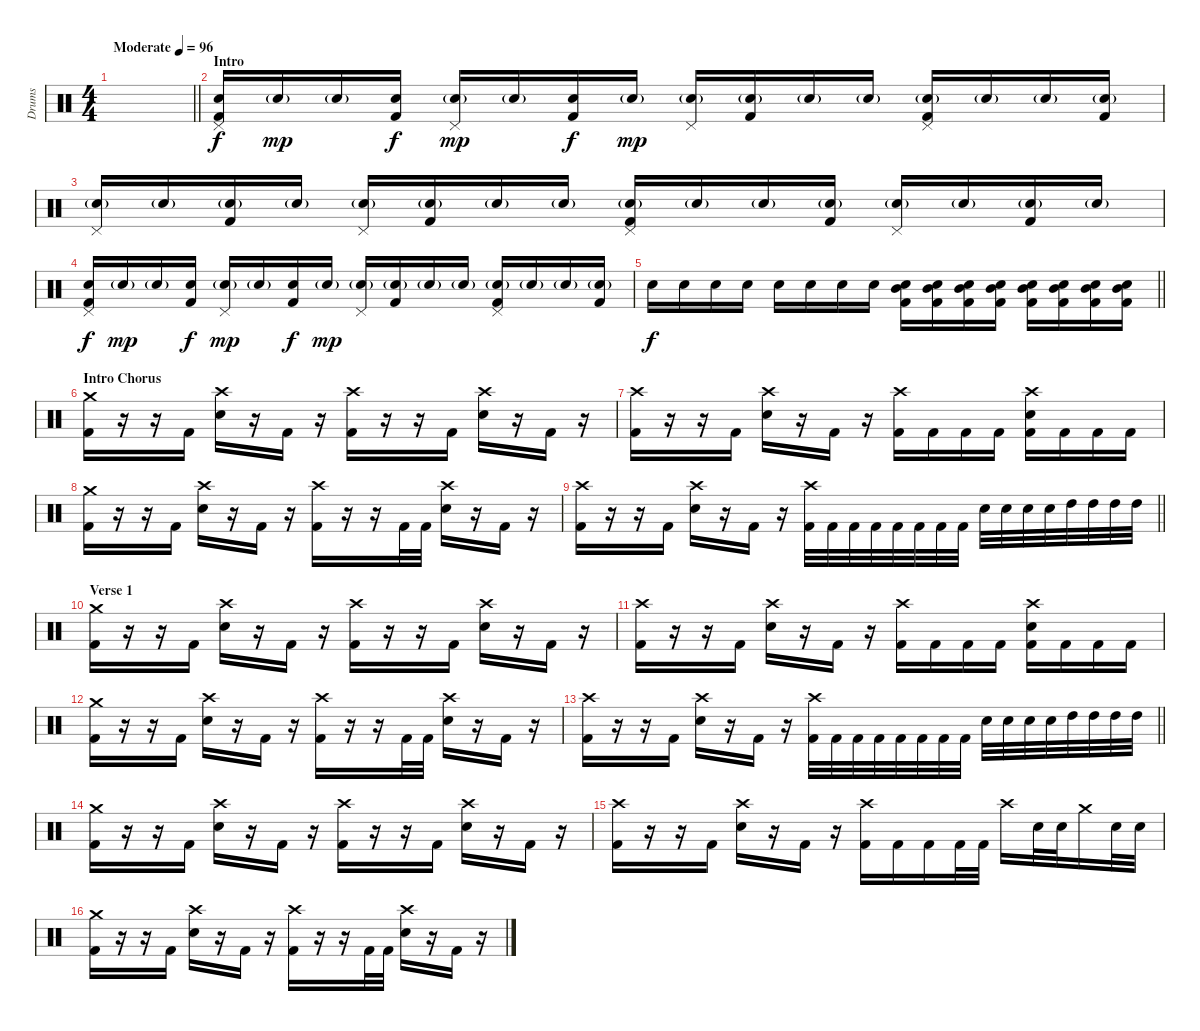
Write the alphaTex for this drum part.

\track ("Drums" "Drums") {instrument percussion}
\staff {score}
\articulation defaults
\ts (4 4)
\tempo (96 "Moderate")
\clef neutral
\barLineRight lightlight
\ks c
|
\section ("" "Intro")
("Pedal Hi-Hat (hit)" "Snare (hit) 2" "Kick (hit) 2").16 "Snare (hit) 2"{g}.16{dy mp} "Snare (hit) 2"{g}.16 ("Snare (hit) 2" "Kick (hit) 2").16{dy f} ("Pedal Hi-Hat (hit)" "Snare (hit) 2"{g}).16{dy mp} "Snare (hit) 2"{g}.16 ("Snare (hit) 2" "Kick (hit) 2").16{dy f} "Snare (hit) 2"{g}.16{dy mp} ("Pedal Hi-Hat (hit)" "Snare (hit) 2"{g}).16 ("Snare (hit) 2"{g} "Kick (hit) 2").16 "Snare (hit) 2"{g}.16 "Snare (hit) 2"{g}.16 ("Pedal Hi-Hat (hit)" "Snare (hit) 2"{g} "Kick (hit) 2").16 "Snare (hit) 2"{g}.16 "Snare (hit) 2"{g}.16 ("Snare (hit) 2"{g} "Kick (hit) 2").16 |
("Pedal Hi-Hat (hit)" "Snare (hit) 2"{g}).16 "Snare (hit) 2"{g}.16 ("Snare (hit) 2"{g} "Kick (hit) 2").16 "Snare (hit) 2"{g}.16 ("Pedal Hi-Hat (hit)" "Snare (hit) 2"{g}).16 ("Snare (hit) 2"{g} "Kick (hit) 2").16 "Snare (hit) 2"{g}.16 "Snare (hit) 2"{g}.16 ("Pedal Hi-Hat (hit)" "Snare (hit) 2"{g} "Kick (hit) 2").16 "Snare (hit) 2"{g}.16 "Snare (hit) 2"{g}.16 ("Snare (hit) 2"{g} "Kick (hit) 2").16 ("Pedal Hi-Hat (hit)" "Snare (hit) 2"{g}).16 "Snare (hit) 2"{g}.16 ("Snare (hit) 2"{g} "Kick (hit) 2").16 "Snare (hit) 2"{g}.16 |
("Pedal Hi-Hat (hit)" "Snare (hit) 2" "Kick (hit) 2").16{dy f} "Snare (hit) 2"{g}.16{dy mp} "Snare (hit) 2"{g}.16 ("Snare (hit) 2" "Kick (hit) 2").16{dy f} ("Pedal Hi-Hat (hit)" "Snare (hit) 2"{g}).16{dy mp} "Snare (hit) 2"{g}.16 ("Snare (hit) 2" "Kick (hit) 2").16{dy f} "Snare (hit) 2"{g}.16{dy mp} ("Pedal Hi-Hat (hit)" "Snare (hit) 2"{g}).16 ("Snare (hit) 2"{g} "Kick (hit) 2").16 "Snare (hit) 2"{g}.16 "Snare (hit) 2"{g}.16 ("Pedal Hi-Hat (hit)" "Snare (hit) 2"{g} "Kick (hit) 2").16 "Snare (hit) 2"{g}.16 "Snare (hit) 2"{g}.16 ("Snare (hit) 2"{g} "Kick (hit) 2").16 |
\barLineRight lightlight "Snare (hit) 2".16{dy f} "Snare (hit) 2".16 "Snare (hit) 2".16 "Snare (hit) 2".16 "Snare (hit) 2".16 "Snare (hit) 2".16 "Snare (hit) 2".16 "Snare (hit) 2".16
("Mid Tom (hit)" "Snare (hit) 2" "Kick (hit) 2").16 ("Mid Tom (hit)" "Snare (hit) 2" "Kick (hit) 2").16 ("Mid Tom (hit)" "Snare (hit) 2" "Kick (hit) 2").16 ("Mid Tom (hit)" "Snare (hit) 2" "Kick (hit) 2").16 ("Mid Tom (hit)" "Snare (hit) 2" "Kick (hit) 2").16 ("Mid Tom (hit)" "Snare (hit) 2" "Kick (hit) 2").16 ("Mid Tom (hit)" "Snare (hit) 2" "Kick (hit) 2").16 ("Mid Tom (hit)" "Snare (hit) 2" "Kick (hit) 2").16 |
\section ("" "Intro Chorus")
("Crash medium (hit)" "Kick (hit) 2").16 r.16 r.16 "Kick (hit) 2".16 ("Crash high (hit)" "Snare (hit) 2").16 r.16 "Kick (hit) 2".16 r.16 ("Crash high (hit)" "Kick (hit) 2").16 r.16 r.16 "Kick (hit) 2".16 ("Crash high (hit)" "Snare (hit) 2").16 r.16 "Kick (hit) 2".16 r.16 |
("Crash high (hit)" "Kick (hit) 2").16 r.16 r.16 "Kick (hit) 2".16 ("Crash high (hit)" "Snare (hit) 2").16 r.16 "Kick (hit) 2".16 r.16 ("Crash high (hit)" "Kick (hit) 2").16 "Kick (hit) 2".16 "Kick (hit) 2".16 "Kick (hit) 2".16 ("Crash high (hit)" "Snare (hit) 2" "Kick (hit) 2").16 "Kick (hit) 2".16 "Kick (hit) 2".16 "Kick (hit) 2".16 |
("Crash medium (hit)" "Kick (hit) 2").16 r.16 r.16 "Kick (hit) 2".16 ("Crash high (hit)" "Snare (hit) 2").16 r.16 "Kick (hit) 2".16 r.16 ("Crash high (hit)" "Kick (hit) 2").16 r.16 r.16 "Kick (hit) 2".32 "Kick (hit) 2".32 ("Crash high (hit)" "Snare (hit) 2").16 r.16 "Kick (hit) 2".16 r.16 |
\barLineRight lightlight
("Crash high (hit)" "Kick (hit) 2").16 r.16 r.16 "Kick (hit) 2".16 ("Crash high (hit)" "Snare (hit) 2").16 r.16 "Kick (hit) 2".16 r.16 ("Crash high (hit)" "Kick (hit) 2").32 "Kick (hit) 2".32 "Kick (hit) 2".32 "Kick (hit) 2".32 "Kick (hit) 2".32 "Kick (hit) 2".32 "Kick (hit) 2".32 "Kick (hit) 2".32 "Snare (hit) 2".32 "Snare (hit) 2".32 "Snare (hit) 2".32 "Snare (hit) 2".32 "High Tom (hit)".32 "High Tom (hit)".32 "High Tom (hit)".32 "High Tom (hit)".32 |
\section ("" "Verse 1")
("Crash medium (hit)" "Kick (hit) 2").16 r.16 r.16 "Kick (hit) 2".16 ("Crash high (hit)" "Snare (hit) 2").16 r.16 "Kick (hit) 2".16 r.16 ("Crash high (hit)" "Kick (hit) 2").16 r.16 r.16 "Kick (hit) 2".16 ("Crash high (hit)" "Snare (hit) 2").16 r.16 "Kick (hit) 2".16 r.16 |
("Crash high (hit)" "Kick (hit) 2").16 r.16 r.16 "Kick (hit) 2".16 ("Crash high (hit)" "Snare (hit) 2").16 r.16 "Kick (hit) 2".16 r.16 ("Crash high (hit)" "Kick (hit) 2").16 "Kick (hit) 2".16 "Kick (hit) 2".16 "Kick (hit) 2".16 ("Crash high (hit)" "Snare (hit) 2" "Kick (hit) 2").16 "Kick (hit) 2".16 "Kick (hit) 2".16 "Kick (hit) 2".16 |
("Crash medium (hit)" "Kick (hit) 2").16 r.16 r.16 "Kick (hit) 2".16 ("Crash high (hit)" "Snare (hit) 2").16 r.16 "Kick (hit) 2".16 r.16 ("Crash high (hit)" "Kick (hit) 2").16 r.16 r.16 "Kick (hit) 2".32 "Kick (hit) 2".32 ("Crash high (hit)" "Snare (hit) 2").16 r.16 "Kick (hit) 2".16 r.16 |
\barLineRight lightlight
("Crash high (hit)" "Kick (hit) 2").16 r.16 r.16 "Kick (hit) 2".16 ("Crash high (hit)" "Snare (hit) 2").16 r.16 "Kick (hit) 2".16 r.16 ("Crash high (hit)" "Kick (hit) 2").32 "Kick (hit) 2".32 "Kick (hit) 2".32 "Kick (hit) 2".32 "Kick (hit) 2".32 "Kick (hit) 2".32 "Kick (hit) 2".32 "Kick (hit) 2".32 "Snare (hit) 2".32 "Snare (hit) 2".32 "Snare (hit) 2".32 "Snare (hit) 2".32 "High Tom (hit)".32 "High Tom (hit)".32 "High Tom (hit)".32 "High Tom (hit)".32 |
("Crash medium (hit)" "Kick (hit) 2").16 r.16 r.16 "Kick (hit) 2".16 ("Crash high (hit)" "Snare (hit) 2").16 r.16 "Kick (hit) 2".16 r.16 ("Crash high (hit)" "Kick (hit) 2").16 r.16 r.16 "Kick (hit) 2".16 ("Crash high (hit)" "Snare (hit) 2").16 r.16 "Kick (hit) 2".16 r.16 |
("Crash high (hit)" "Kick (hit) 2").16 r.16 r.16 "Kick (hit) 2".16 ("Crash high (hit)" "Snare (hit) 2").16 r.16 "Kick (hit) 2".16 r.16 ("Crash high (hit)" "Kick (hit) 2").16 "Kick (hit) 2".16 "Kick (hit) 2".16 "Kick (hit) 2".32 "Kick (hit) 2".32 "Crash high (hit)".16 "Snare (hit) 2".32 "Snare (hit) 2".32 "Crash medium (hit)".16 "Snare (hit) 2".32 "Snare (hit) 2".32 |
("Crash medium (hit)" "Kick (hit) 2").16 r.16 r.16 "Kick (hit) 2".16 ("Crash high (hit)" "Snare (hit) 2").16 r.16 "Kick (hit) 2".16 r.16 ("Crash high (hit)" "Kick (hit) 2").16 r.16 r.16 "Kick (hit) 2".32 "Kick (hit) 2".32 ("Crash high (hit)" "Snare (hit) 2").16 r.16 "Kick (hit) 2".16 r.16
